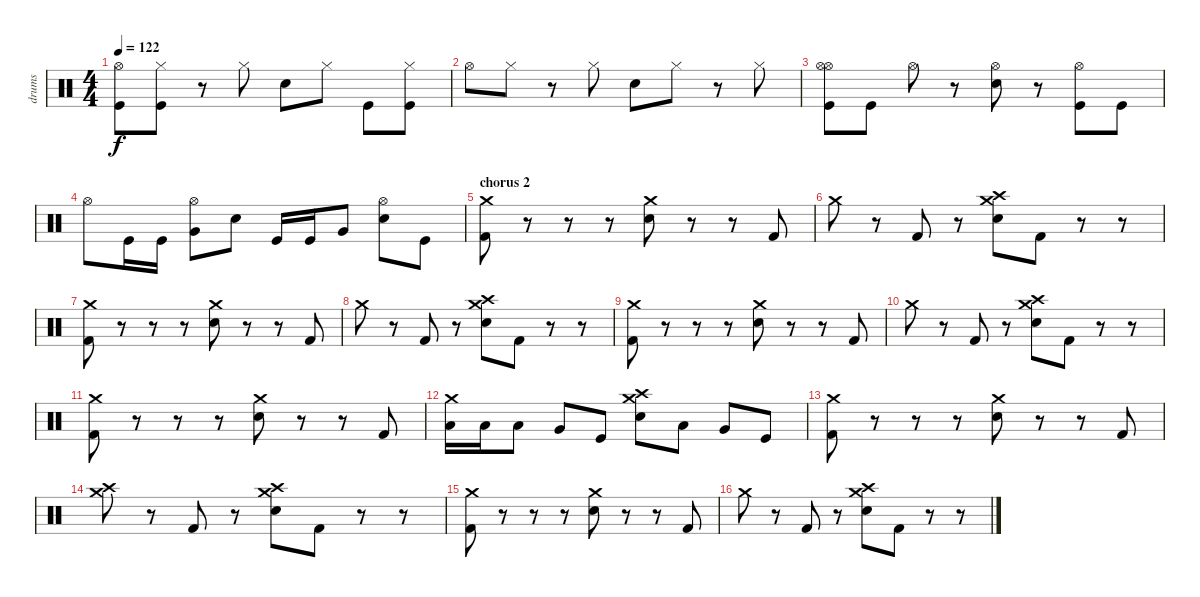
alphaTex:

\track ("drums" "drums") {instrument percussion}
\staff {score}
\articulation defaults
\ts (4 4)
\tempo 122
\clef neutral
\ks c
("Hi-Hat (open)" "Kick (hit)").8{dy f} ("Hi-Hat (closed)" "Kick (hit)").8 r.8 "Hi-Hat (closed)".8 "Electric Snare (hit)".8 "Hi-Hat (closed)".8 "Kick (hit)".8 ("Hi-Hat (closed)" "Kick (hit)").8 |
"Hi-Hat (open)".8 "Hi-Hat (closed)".8 r.8 "Hi-Hat (closed)".8 "Electric Snare (hit)".8 "Hi-Hat (closed)".8 r.8 "Hi-Hat (closed)".8 |
("Hi-Hat (open)" "Hi-Hat (open)" "Kick (hit)").8 "Kick (hit)".8 "Hi-Hat (open)".8 r.8 ("Hi-Hat (open)" "Electric Snare (hit)").8 r.8 ("Hi-Hat (open)" "Kick (hit)").8 "Kick (hit)".8 |
"Hi-Hat (open)".8 "Kick (hit)".16 "Kick (hit)".16 ("Hi-Hat (open)" "Very Low Tom (hit)").8 "Electric Snare (hit)".8 "Kick (hit)".16 "Kick (hit)".16 "Very Low Tom (hit)".8 ("Hi-Hat (open)" "Electric Snare (hit)").8 "Kick (hit)".8 |
\section ("" "chorus 2")
("Crash medium (hit)" "Kick (hit) 2").8 r.8 r.8 r.8 ("Crash medium (hit)" "Electric Snare (hit)").8 r.8 r.8 "Kick (hit) 2".8 |
"Crash medium (hit)".8 r.8 "Kick (hit) 2".8 r.8 ("Crash medium (hit)" "Crash high (hit)" "Electric Snare (hit)").8 "Kick (hit) 2".8 r.8 r.8 |
("Crash medium (hit)" "Kick (hit) 2").8 r.8 r.8 r.8 ("Crash medium (hit)" "Electric Snare (hit)").8 r.8 r.8 "Kick (hit) 2".8 |
"Crash medium (hit)".8 r.8 "Kick (hit) 2".8 r.8 ("Crash medium (hit)" "Crash high (hit)" "Electric Snare (hit)").8 "Kick (hit) 2".8 r.8 r.8 |
("Crash medium (hit)" "Kick (hit) 2").8 r.8 r.8 r.8 ("Crash medium (hit)" "Electric Snare (hit)").8 r.8 r.8 "Kick (hit) 2".8 |
"Crash medium (hit)".8 r.8 "Kick (hit) 2".8 r.8 ("Crash medium (hit)" "Crash high (hit)" "Electric Snare (hit)").8 "Kick (hit) 2".8 r.8 r.8 |
("Crash medium (hit)" "Kick (hit) 2").8 r.8 r.8 r.8 ("Crash medium (hit)" "Electric Snare (hit)").8 r.8 r.8 "Kick (hit) 2".8 |
("Crash medium (hit)" "Low Tom (hit)").16 "Low Tom (hit)".16 "Low Tom (hit)".8 "Very Low Tom (hit)".8 "Kick (hit)".8 ("Crash medium (hit)" "Crash high (hit)" "Electric Snare (hit)").8 "Low Tom (hit)".8 "Very Low Tom (hit)".8 "Kick (hit)".8 |
("Crash medium (hit)" "Kick (hit) 2").8 r.8 r.8 r.8 ("Crash medium (hit)" "Electric Snare (hit)").8 r.8 r.8 "Kick (hit) 2".8 |
("Crash medium (hit)" "Crash high (hit)").8 r.8 "Kick (hit) 2".8 r.8 ("Crash medium (hit)" "Crash high (hit)" "Electric Snare (hit)").8 "Kick (hit) 2".8 r.8 r.8 |
("Crash medium (hit)" "Kick (hit) 2").8 r.8 r.8 r.8 ("Crash medium (hit)" "Electric Snare (hit)").8 r.8 r.8 "Kick (hit) 2".8 |
"Crash medium (hit)".8 r.8 "Kick (hit) 2".8 r.8 ("Crash medium (hit)" "Crash high (hit)" "Electric Snare (hit)").8 "Kick (hit) 2".8 r.8 r.8
